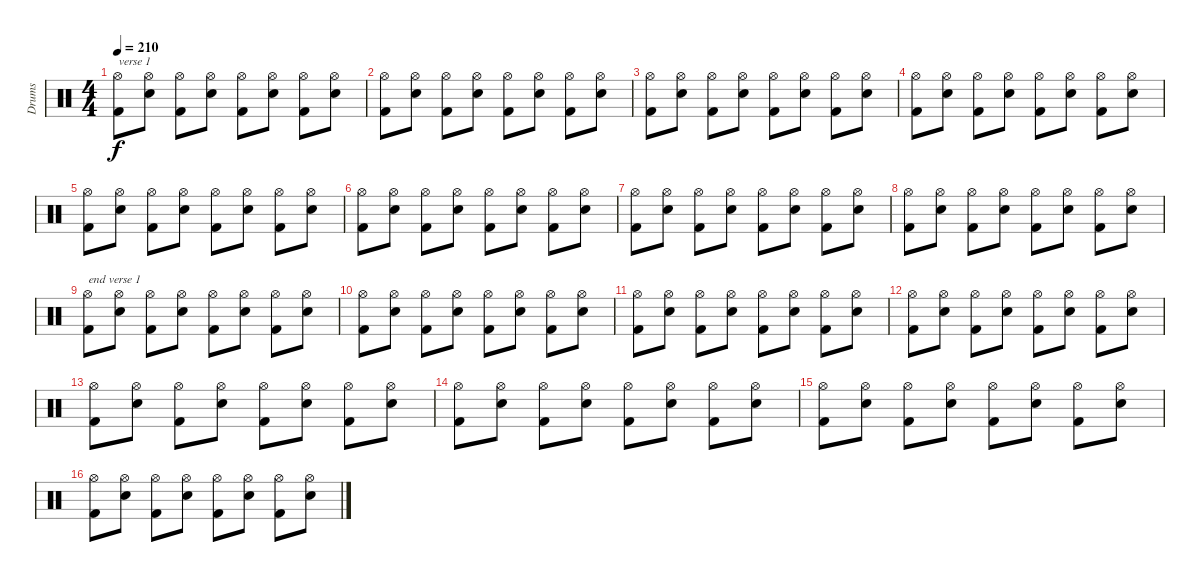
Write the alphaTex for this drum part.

\track ("Drums" "Drums") {instrument percussion}
\staff {score}
\articulation defaults
\ts (4 4)
\tempo 210
\clef neutral
\ks c
("Kick (hit) 2" "Hi-Hat (open)").8{txt "verse 1" dy f} ("Snare (hit) 2" "Hi-Hat (open)").8 ("Kick (hit) 2" "Hi-Hat (open)").8 ("Snare (hit) 2" "Hi-Hat (open)").8 ("Kick (hit) 2" "Hi-Hat (open)").8 ("Snare (hit) 2" "Hi-Hat (open)").8 ("Kick (hit) 2" "Hi-Hat (open)").8 ("Snare (hit) 2" "Hi-Hat (open)").8 |
("Kick (hit) 2" "Hi-Hat (open)").8 ("Snare (hit) 2" "Hi-Hat (open)").8 ("Kick (hit) 2" "Hi-Hat (open)").8 ("Snare (hit) 2" "Hi-Hat (open)").8 ("Kick (hit) 2" "Hi-Hat (open)").8 ("Snare (hit) 2" "Hi-Hat (open)").8 ("Kick (hit) 2" "Hi-Hat (open)").8 ("Snare (hit) 2" "Hi-Hat (open)").8 |
("Kick (hit) 2" "Hi-Hat (open)").8 ("Snare (hit) 2" "Hi-Hat (open)").8 ("Kick (hit) 2" "Hi-Hat (open)").8 ("Snare (hit) 2" "Hi-Hat (open)").8 ("Kick (hit) 2" "Hi-Hat (open)").8 ("Snare (hit) 2" "Hi-Hat (open)").8 ("Kick (hit) 2" "Hi-Hat (open)").8 ("Snare (hit) 2" "Hi-Hat (open)").8 |
("Kick (hit) 2" "Hi-Hat (open)").8 ("Snare (hit) 2" "Hi-Hat (open)").8 ("Kick (hit) 2" "Hi-Hat (open)").8 ("Snare (hit) 2" "Hi-Hat (open)").8 ("Kick (hit) 2" "Hi-Hat (open)").8 ("Snare (hit) 2" "Hi-Hat (open)").8 ("Kick (hit) 2" "Hi-Hat (open)").8 ("Snare (hit) 2" "Hi-Hat (open)").8 |
("Kick (hit) 2" "Hi-Hat (open)").8 ("Snare (hit) 2" "Hi-Hat (open)").8 ("Kick (hit) 2" "Hi-Hat (open)").8 ("Snare (hit) 2" "Hi-Hat (open)").8 ("Kick (hit) 2" "Hi-Hat (open)").8 ("Snare (hit) 2" "Hi-Hat (open)").8 ("Kick (hit) 2" "Hi-Hat (open)").8 ("Snare (hit) 2" "Hi-Hat (open)").8 |
("Kick (hit) 2" "Hi-Hat (open)").8 ("Snare (hit) 2" "Hi-Hat (open)").8 ("Kick (hit) 2" "Hi-Hat (open)").8 ("Snare (hit) 2" "Hi-Hat (open)").8 ("Kick (hit) 2" "Hi-Hat (open)").8 ("Snare (hit) 2" "Hi-Hat (open)").8 ("Kick (hit) 2" "Hi-Hat (open)").8 ("Snare (hit) 2" "Hi-Hat (open)").8 |
("Kick (hit) 2" "Hi-Hat (open)").8 ("Snare (hit) 2" "Hi-Hat (open)").8 ("Kick (hit) 2" "Hi-Hat (open)").8 ("Snare (hit) 2" "Hi-Hat (open)").8 ("Kick (hit) 2" "Hi-Hat (open)").8 ("Snare (hit) 2" "Hi-Hat (open)").8 ("Kick (hit) 2" "Hi-Hat (open)").8 ("Snare (hit) 2" "Hi-Hat (open)").8 |
("Kick (hit) 2" "Hi-Hat (open)").8 ("Snare (hit) 2" "Hi-Hat (open)").8 ("Kick (hit) 2" "Hi-Hat (open)").8 ("Snare (hit) 2" "Hi-Hat (open)").8 ("Kick (hit) 2" "Hi-Hat (open)").8 ("Snare (hit) 2" "Hi-Hat (open)").8 ("Kick (hit) 2" "Hi-Hat (open)").8 ("Snare (hit) 2" "Hi-Hat (open)").8 |
("Kick (hit) 2" "Hi-Hat (open)").8{txt "end verse 1"} ("Snare (hit) 2" "Hi-Hat (open)").8 ("Kick (hit) 2" "Hi-Hat (open)").8 ("Snare (hit) 2" "Hi-Hat (open)").8 ("Kick (hit) 2" "Hi-Hat (open)").8 ("Snare (hit) 2" "Hi-Hat (open)").8 ("Kick (hit) 2" "Hi-Hat (open)").8 ("Snare (hit) 2" "Hi-Hat (open)").8 |
("Kick (hit) 2" "Hi-Hat (open)").8 ("Snare (hit) 2" "Hi-Hat (open)").8 ("Kick (hit) 2" "Hi-Hat (open)").8 ("Snare (hit) 2" "Hi-Hat (open)").8 ("Kick (hit) 2" "Hi-Hat (open)").8 ("Snare (hit) 2" "Hi-Hat (open)").8 ("Kick (hit) 2" "Hi-Hat (open)").8 ("Snare (hit) 2" "Hi-Hat (open)").8 |
("Kick (hit) 2" "Hi-Hat (open)").8 ("Snare (hit) 2" "Hi-Hat (open)").8 ("Kick (hit) 2" "Hi-Hat (open)").8 ("Snare (hit) 2" "Hi-Hat (open)").8 ("Kick (hit) 2" "Hi-Hat (open)").8 ("Snare (hit) 2" "Hi-Hat (open)").8 ("Kick (hit) 2" "Hi-Hat (open)").8 ("Snare (hit) 2" "Hi-Hat (open)").8 |
("Kick (hit) 2" "Hi-Hat (open)").8 ("Snare (hit) 2" "Hi-Hat (open)").8 ("Kick (hit) 2" "Hi-Hat (open)").8 ("Snare (hit) 2" "Hi-Hat (open)").8 ("Kick (hit) 2" "Hi-Hat (open)").8 ("Snare (hit) 2" "Hi-Hat (open)").8 ("Kick (hit) 2" "Hi-Hat (open)").8 ("Snare (hit) 2" "Hi-Hat (open)").8 |
("Kick (hit) 2" "Hi-Hat (open)").8 ("Snare (hit) 2" "Hi-Hat (open)").8 ("Kick (hit) 2" "Hi-Hat (open)").8 ("Snare (hit) 2" "Hi-Hat (open)").8 ("Kick (hit) 2" "Hi-Hat (open)").8 ("Snare (hit) 2" "Hi-Hat (open)").8 ("Kick (hit) 2" "Hi-Hat (open)").8 ("Snare (hit) 2" "Hi-Hat (open)").8 |
("Kick (hit) 2" "Hi-Hat (open)").8 ("Snare (hit) 2" "Hi-Hat (open)").8 ("Kick (hit) 2" "Hi-Hat (open)").8 ("Snare (hit) 2" "Hi-Hat (open)").8 ("Kick (hit) 2" "Hi-Hat (open)").8 ("Snare (hit) 2" "Hi-Hat (open)").8 ("Kick (hit) 2" "Hi-Hat (open)").8 ("Snare (hit) 2" "Hi-Hat (open)").8 |
("Kick (hit) 2" "Hi-Hat (open)").8 ("Snare (hit) 2" "Hi-Hat (open)").8 ("Kick (hit) 2" "Hi-Hat (open)").8 ("Snare (hit) 2" "Hi-Hat (open)").8 ("Kick (hit) 2" "Hi-Hat (open)").8 ("Snare (hit) 2" "Hi-Hat (open)").8 ("Kick (hit) 2" "Hi-Hat (open)").8 ("Snare (hit) 2" "Hi-Hat (open)").8 |
("Kick (hit) 2" "Hi-Hat (open)").8 ("Snare (hit) 2" "Hi-Hat (open)").8 ("Kick (hit) 2" "Hi-Hat (open)").8 ("Snare (hit) 2" "Hi-Hat (open)").8 ("Kick (hit) 2" "Hi-Hat (open)").8 ("Snare (hit) 2" "Hi-Hat (open)").8 ("Kick (hit) 2" "Hi-Hat (open)").8 ("Snare (hit) 2" "Hi-Hat (open)").8
